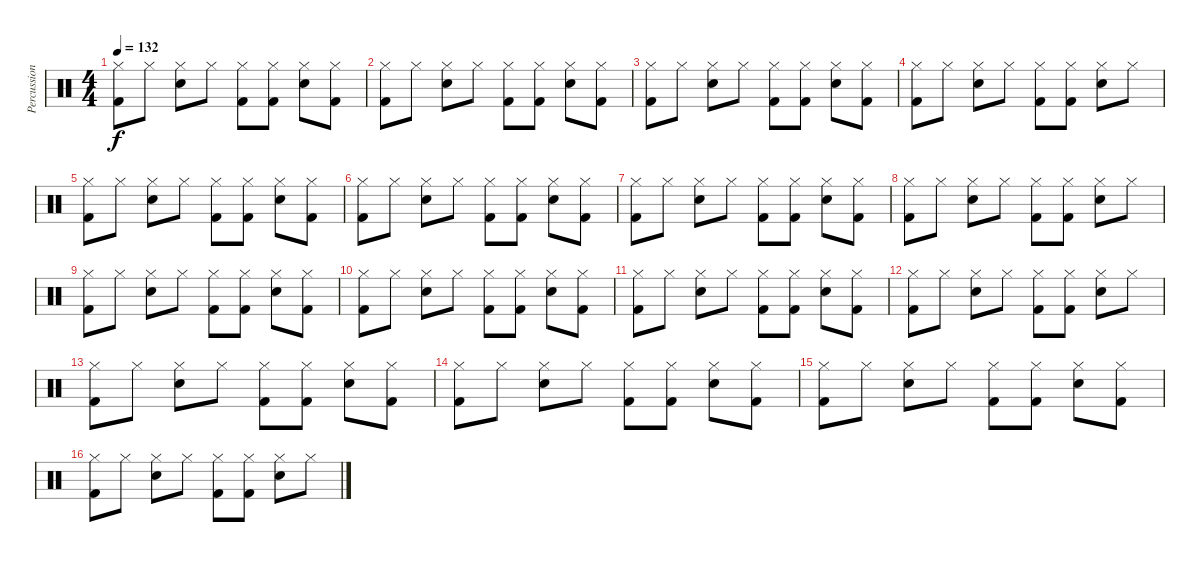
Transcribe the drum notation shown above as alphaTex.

\track ("Percussion" "Percussion") {instrument percussion}
\staff {score}
\articulation defaults
\ts (4 4)
\tempo 132
\clef neutral
\ks c
("Kick (hit) 2" "Hi-Hat (closed)").8{dy f} "Hi-Hat (closed)".8 ("Electric Snare (hit)" "Hi-Hat (closed)").8 "Hi-Hat (closed)".8 ("Kick (hit) 2" "Hi-Hat (closed)").8 ("Kick (hit) 2" "Hi-Hat (closed)").8 ("Electric Snare (hit)" "Hi-Hat (closed)").8 ("Kick (hit) 2" "Hi-Hat (closed)").8 |
("Kick (hit) 2" "Hi-Hat (closed)").8 "Hi-Hat (closed)".8 ("Electric Snare (hit)" "Hi-Hat (closed)").8 "Hi-Hat (closed)".8 ("Kick (hit) 2" "Hi-Hat (closed)").8 ("Kick (hit) 2" "Hi-Hat (closed)").8 ("Electric Snare (hit)" "Hi-Hat (closed)").8 ("Kick (hit) 2" "Hi-Hat (closed)").8 |
("Kick (hit) 2" "Hi-Hat (closed)").8 "Hi-Hat (closed)".8 ("Electric Snare (hit)" "Hi-Hat (closed)").8 "Hi-Hat (closed)".8 ("Kick (hit) 2" "Hi-Hat (closed)").8 ("Kick (hit) 2" "Hi-Hat (closed)").8 ("Electric Snare (hit)" "Hi-Hat (closed)").8 ("Kick (hit) 2" "Hi-Hat (closed)").8 |
("Kick (hit) 2" "Hi-Hat (closed)").8 "Hi-Hat (closed)".8 ("Electric Snare (hit)" "Hi-Hat (closed)").8 "Hi-Hat (closed)".8 ("Kick (hit) 2" "Hi-Hat (closed)").8 ("Kick (hit) 2" "Hi-Hat (closed)").8 ("Electric Snare (hit)" "Hi-Hat (closed)").8 "Hi-Hat (closed)".8 |
("Kick (hit) 2" "Hi-Hat (closed)").8 "Hi-Hat (closed)".8 ("Electric Snare (hit)" "Hi-Hat (closed)").8 "Hi-Hat (closed)".8 ("Kick (hit) 2" "Hi-Hat (closed)").8 ("Kick (hit) 2" "Hi-Hat (closed)").8 ("Electric Snare (hit)" "Hi-Hat (closed)").8 ("Kick (hit) 2" "Hi-Hat (closed)").8 |
("Kick (hit) 2" "Hi-Hat (closed)").8 "Hi-Hat (closed)".8 ("Electric Snare (hit)" "Hi-Hat (closed)").8 "Hi-Hat (closed)".8 ("Kick (hit) 2" "Hi-Hat (closed)").8 ("Kick (hit) 2" "Hi-Hat (closed)").8 ("Electric Snare (hit)" "Hi-Hat (closed)").8 ("Kick (hit) 2" "Hi-Hat (closed)").8 |
("Kick (hit) 2" "Hi-Hat (closed)").8 "Hi-Hat (closed)".8 ("Electric Snare (hit)" "Hi-Hat (closed)").8 "Hi-Hat (closed)".8 ("Kick (hit) 2" "Hi-Hat (closed)").8 ("Kick (hit) 2" "Hi-Hat (closed)").8 ("Electric Snare (hit)" "Hi-Hat (closed)").8 ("Kick (hit) 2" "Hi-Hat (closed)").8 |
("Kick (hit) 2" "Hi-Hat (closed)").8 "Hi-Hat (closed)".8 ("Electric Snare (hit)" "Hi-Hat (closed)").8 "Hi-Hat (closed)".8 ("Kick (hit) 2" "Hi-Hat (closed)").8 ("Kick (hit) 2" "Hi-Hat (closed)").8 ("Electric Snare (hit)" "Hi-Hat (closed)").8 "Hi-Hat (closed)".8 |
("Kick (hit) 2" "Hi-Hat (closed)").8 "Hi-Hat (closed)".8 ("Electric Snare (hit)" "Hi-Hat (closed)").8 "Hi-Hat (closed)".8 ("Kick (hit) 2" "Hi-Hat (closed)").8 ("Kick (hit) 2" "Hi-Hat (closed)").8 ("Electric Snare (hit)" "Hi-Hat (closed)").8 ("Kick (hit) 2" "Hi-Hat (closed)").8 |
("Kick (hit) 2" "Hi-Hat (closed)").8 "Hi-Hat (closed)".8 ("Electric Snare (hit)" "Hi-Hat (closed)").8 "Hi-Hat (closed)".8 ("Kick (hit) 2" "Hi-Hat (closed)").8 ("Kick (hit) 2" "Hi-Hat (closed)").8 ("Electric Snare (hit)" "Hi-Hat (closed)").8 ("Kick (hit) 2" "Hi-Hat (closed)").8 |
("Kick (hit) 2" "Hi-Hat (closed)").8 "Hi-Hat (closed)".8 ("Electric Snare (hit)" "Hi-Hat (closed)").8 "Hi-Hat (closed)".8 ("Kick (hit) 2" "Hi-Hat (closed)").8 ("Kick (hit) 2" "Hi-Hat (closed)").8 ("Electric Snare (hit)" "Hi-Hat (closed)").8 ("Kick (hit) 2" "Hi-Hat (closed)").8 |
("Kick (hit) 2" "Hi-Hat (closed)").8 "Hi-Hat (closed)".8 ("Electric Snare (hit)" "Hi-Hat (closed)").8 "Hi-Hat (closed)".8 ("Kick (hit) 2" "Hi-Hat (closed)").8 ("Kick (hit) 2" "Hi-Hat (closed)").8 ("Electric Snare (hit)" "Hi-Hat (closed)").8 "Hi-Hat (closed)".8 |
("Kick (hit) 2" "Hi-Hat (closed)").8 "Hi-Hat (closed)".8 ("Electric Snare (hit)" "Hi-Hat (closed)").8 "Hi-Hat (closed)".8 ("Kick (hit) 2" "Hi-Hat (closed)").8 ("Kick (hit) 2" "Hi-Hat (closed)").8 ("Electric Snare (hit)" "Hi-Hat (closed)").8 ("Kick (hit) 2" "Hi-Hat (closed)").8 |
("Kick (hit) 2" "Hi-Hat (closed)").8 "Hi-Hat (closed)".8 ("Electric Snare (hit)" "Hi-Hat (closed)").8 "Hi-Hat (closed)".8 ("Kick (hit) 2" "Hi-Hat (closed)").8 ("Kick (hit) 2" "Hi-Hat (closed)").8 ("Electric Snare (hit)" "Hi-Hat (closed)").8 ("Kick (hit) 2" "Hi-Hat (closed)").8 |
("Kick (hit) 2" "Hi-Hat (closed)").8 "Hi-Hat (closed)".8 ("Electric Snare (hit)" "Hi-Hat (closed)").8 "Hi-Hat (closed)".8 ("Kick (hit) 2" "Hi-Hat (closed)").8 ("Kick (hit) 2" "Hi-Hat (closed)").8 ("Electric Snare (hit)" "Hi-Hat (closed)").8 ("Kick (hit) 2" "Hi-Hat (closed)").8 |
("Kick (hit) 2" "Hi-Hat (closed)").8 "Hi-Hat (closed)".8 ("Electric Snare (hit)" "Hi-Hat (closed)").8 "Hi-Hat (closed)".8 ("Kick (hit) 2" "Hi-Hat (closed)").8 ("Kick (hit) 2" "Hi-Hat (closed)").8 ("Electric Snare (hit)" "Hi-Hat (closed)").8 "Hi-Hat (closed)".8
